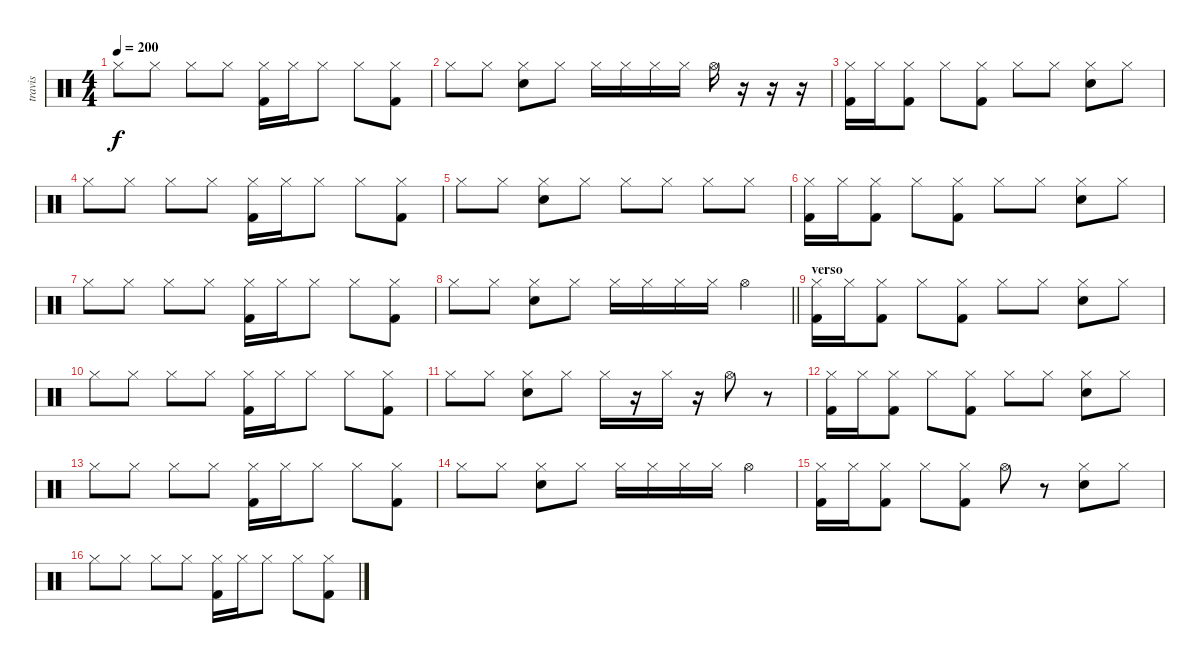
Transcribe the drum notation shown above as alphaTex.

\track ("travis" "travis") {instrument percussion}
\staff {score}
\articulation defaults
\ts (4 4)
\tempo 200
\clef neutral
\ks c "Hi-Hat (closed)".8{dy f} "Hi-Hat (closed)".8 "Hi-Hat (closed)".8 "Hi-Hat (closed)".8
("Hi-Hat (closed)" "Kick (hit) 2").16 "Hi-Hat (closed)".16 "Hi-Hat (closed)".8 "Hi-Hat (closed)".8 ("Hi-Hat (closed)" "Kick (hit) 2").8 |
"Hi-Hat (closed)".8 "Hi-Hat (closed)".8 ("Hi-Hat (closed)" "Electric Snare (hit)").8 "Hi-Hat (closed)".8 "Hi-Hat (closed)".16 "Hi-Hat (closed)".16 "Hi-Hat (closed)".16 "Hi-Hat (closed)".16 "Hi-Hat (open)".16 r.16 r.16 r.16 |
("Hi-Hat (closed)" "Kick (hit) 2").16 "Hi-Hat (closed)".16 ("Hi-Hat (closed)" "Kick (hit) 2").8 "Hi-Hat (closed)".8 ("Hi-Hat (closed)" "Kick (hit) 2").8 "Hi-Hat (closed)".8 "Hi-Hat (closed)".8 ("Hi-Hat (closed)" "Electric Snare (hit)").8 "Hi-Hat (closed)".8 |
"Hi-Hat (closed)".8 "Hi-Hat (closed)".8 "Hi-Hat (closed)".8 "Hi-Hat (closed)".8 ("Hi-Hat (closed)" "Kick (hit) 2").16 "Hi-Hat (closed)".16 "Hi-Hat (closed)".8 "Hi-Hat (closed)".8 ("Hi-Hat (closed)" "Kick (hit) 2").8 |
"Hi-Hat (closed)".8 "Hi-Hat (closed)".8 ("Hi-Hat (closed)" "Electric Snare (hit)").8 "Hi-Hat (closed)".8 "Hi-Hat (closed)".8 "Hi-Hat (closed)".8 "Hi-Hat (closed)".8 "Hi-Hat (closed)".8 |
("Hi-Hat (closed)" "Kick (hit) 2").16 "Hi-Hat (closed)".16 ("Hi-Hat (closed)" "Kick (hit) 2").8 "Hi-Hat (closed)".8 ("Hi-Hat (closed)" "Kick (hit) 2").8 "Hi-Hat (closed)".8 "Hi-Hat (closed)".8 ("Hi-Hat (closed)" "Electric Snare (hit)").8 "Hi-Hat (closed)".8 |
"Hi-Hat (closed)".8 "Hi-Hat (closed)".8 "Hi-Hat (closed)".8 "Hi-Hat (closed)".8 ("Hi-Hat (closed)" "Kick (hit) 2").16 "Hi-Hat (closed)".16 "Hi-Hat (closed)".8 "Hi-Hat (closed)".8 ("Hi-Hat (closed)" "Kick (hit) 2").8 |
\barLineRight lightlight "Hi-Hat (closed)".8 "Hi-Hat (closed)".8
("Hi-Hat (closed)" "Electric Snare (hit)").8 "Hi-Hat (closed)".8 "Hi-Hat (closed)".16 "Hi-Hat (closed)".16 "Hi-Hat (closed)".16 "Hi-Hat (closed)".16 "Hi-Hat (open)".4 |
\section ("" "verso")
("Hi-Hat (closed)" "Kick (hit) 2").16 "Hi-Hat (closed)".16 ("Hi-Hat (closed)" "Kick (hit) 2").8 "Hi-Hat (closed)".8 ("Hi-Hat (closed)" "Kick (hit) 2").8 "Hi-Hat (closed)".8 "Hi-Hat (closed)".8 ("Hi-Hat (closed)" "Electric Snare (hit)").8 "Hi-Hat (closed)".8 |
"Hi-Hat (closed)".8 "Hi-Hat (closed)".8 "Hi-Hat (closed)".8 "Hi-Hat (closed)".8 ("Hi-Hat (closed)" "Kick (hit) 2").16 "Hi-Hat (closed)".16 "Hi-Hat (closed)".8 "Hi-Hat (closed)".8 ("Hi-Hat (closed)" "Kick (hit) 2").8 |
"Hi-Hat (closed)".8 "Hi-Hat (closed)".8 ("Hi-Hat (closed)" "Electric Snare (hit)").8 "Hi-Hat (closed)".8 "Hi-Hat (closed)".16 r.16 "Hi-Hat (closed)".16 r.16 "Hi-Hat (open)".8 r.8 |
("Hi-Hat (closed)" "Kick (hit) 2").16 "Hi-Hat (closed)".16 ("Hi-Hat (closed)" "Kick (hit) 2").8 "Hi-Hat (closed)".8 ("Hi-Hat (closed)" "Kick (hit) 2").8 "Hi-Hat (closed)".8 "Hi-Hat (closed)".8 ("Hi-Hat (closed)" "Electric Snare (hit)").8 "Hi-Hat (closed)".8 |
"Hi-Hat (closed)".8 "Hi-Hat (closed)".8 "Hi-Hat (closed)".8 "Hi-Hat (closed)".8 ("Hi-Hat (closed)" "Kick (hit) 2").16 "Hi-Hat (closed)".16 "Hi-Hat (closed)".8 "Hi-Hat (closed)".8 ("Hi-Hat (closed)" "Kick (hit) 2").8 |
"Hi-Hat (closed)".8 "Hi-Hat (closed)".8 ("Hi-Hat (closed)" "Electric Snare (hit)").8 "Hi-Hat (closed)".8 "Hi-Hat (closed)".16 "Hi-Hat (closed)".16 "Hi-Hat (closed)".16 "Hi-Hat (closed)".16 "Hi-Hat (open)".4 |
("Hi-Hat (closed)" "Kick (hit) 2").16 "Hi-Hat (closed)".16 ("Hi-Hat (closed)" "Kick (hit) 2").8 "Hi-Hat (closed)".8 ("Hi-Hat (closed)" "Kick (hit) 2").8 "Hi-Hat (open)".8 r.8 ("Hi-Hat (closed)" "Electric Snare (hit)").8 "Hi-Hat (closed)".8 |
"Hi-Hat (closed)".8 "Hi-Hat (closed)".8 "Hi-Hat (closed)".8 "Hi-Hat (closed)".8 ("Hi-Hat (closed)" "Kick (hit) 2").16 "Hi-Hat (closed)".16 "Hi-Hat (closed)".8 "Hi-Hat (closed)".8 ("Hi-Hat (closed)" "Kick (hit) 2").8
